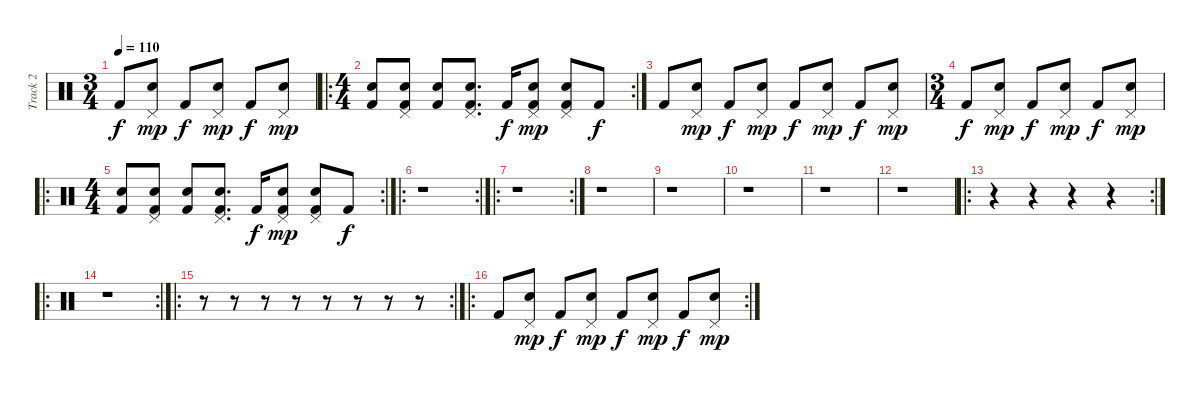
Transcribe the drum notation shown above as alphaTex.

\track ("Track 2" "Track 2") {instrument percussion}
\staff {score}
\articulation defaults
\ts (3 4)
\tempo 110
\clef neutral
\ks c "Kick (hit) 2".8{dy f}
("Pedal Hi-Hat (hit)" "Hand Clap (hit)").8{dy mp} "Kick (hit) 2".8{dy f} ("Pedal Hi-Hat (hit)" "Hand Clap (hit)").8{dy mp} "Kick (hit) 2".8{dy f} ("Pedal Hi-Hat (hit)" "Hand Clap (hit)").8{dy mp} |
\ro
\rc 2
\ts (4 4)
("Kick (hit) 2" "Hand Clap (hit)").8 ("Kick (hit) 2" "Hand Clap (hit)" "Pedal Hi-Hat (hit)").8 ("Kick (hit) 2" "Hand Clap (hit)").8 ("Kick (hit) 2" "Hand Clap (hit)" "Pedal Hi-Hat (hit)").8{d} "Kick (hit) 2".16{dy f} ("Kick (hit) 2" "Hand Clap (hit)" "Pedal Hi-Hat (hit)").8{dy mp} ("Kick (hit) 2" "Hand Clap (hit)" "Pedal Hi-Hat (hit)").8 "Kick (hit) 2".8{dy f} |
"Kick (hit) 2".8 ("Pedal Hi-Hat (hit)" "Hand Clap (hit)").8{dy mp} "Kick (hit) 2".8{dy f} ("Pedal Hi-Hat (hit)" "Hand Clap (hit)").8{dy mp} "Kick (hit) 2".8{dy f} ("Pedal Hi-Hat (hit)" "Hand Clap (hit)").8{dy mp} "Kick (hit) 2".8{dy f} ("Pedal Hi-Hat (hit)" "Hand Clap (hit)").8{dy mp} |
\ts (3 4)
"Kick (hit) 2".8{dy f} ("Pedal Hi-Hat (hit)" "Hand Clap (hit)").8{dy mp} "Kick (hit) 2".8{dy f} ("Pedal Hi-Hat (hit)" "Hand Clap (hit)").8{dy mp} "Kick (hit) 2".8{dy f} ("Pedal Hi-Hat (hit)" "Hand Clap (hit)").8{dy mp} |
\ro
\rc 2
\ts (4 4)
("Kick (hit) 2" "Hand Clap (hit)").8 ("Kick (hit) 2" "Hand Clap (hit)" "Pedal Hi-Hat (hit)").8 ("Kick (hit) 2" "Hand Clap (hit)").8 ("Kick (hit) 2" "Hand Clap (hit)" "Pedal Hi-Hat (hit)").8{d} "Kick (hit) 2".16{dy f} ("Kick (hit) 2" "Hand Clap (hit)" "Pedal Hi-Hat (hit)").8{dy mp} ("Kick (hit) 2" "Hand Clap (hit)" "Pedal Hi-Hat (hit)").8 "Kick (hit) 2".8{dy f} |
\ro
\rc 2
r.1 |
\ro
\rc 2
r.1 |
r.1 |
r.1 |
r.1 |
r.1 |
r.1 |
\ro
\rc 2
r.4 r.4 r.4 r.4 |
\ro
\rc 2
r.1 |
\ro
\rc 2
r.8 r.8 r.8 r.8 r.8 r.8 r.8 r.8 |
\ro
\rc 2 "Kick (hit) 2".8
("Pedal Hi-Hat (hit)" "Hand Clap (hit)").8{dy mp} "Kick (hit) 2".8{dy f} ("Pedal Hi-Hat (hit)" "Hand Clap (hit)").8{dy mp} "Kick (hit) 2".8{dy f} ("Pedal Hi-Hat (hit)" "Hand Clap (hit)").8{dy mp} "Kick (hit) 2".8{dy f} ("Pedal Hi-Hat (hit)" "Hand Clap (hit)").8{dy mp}
